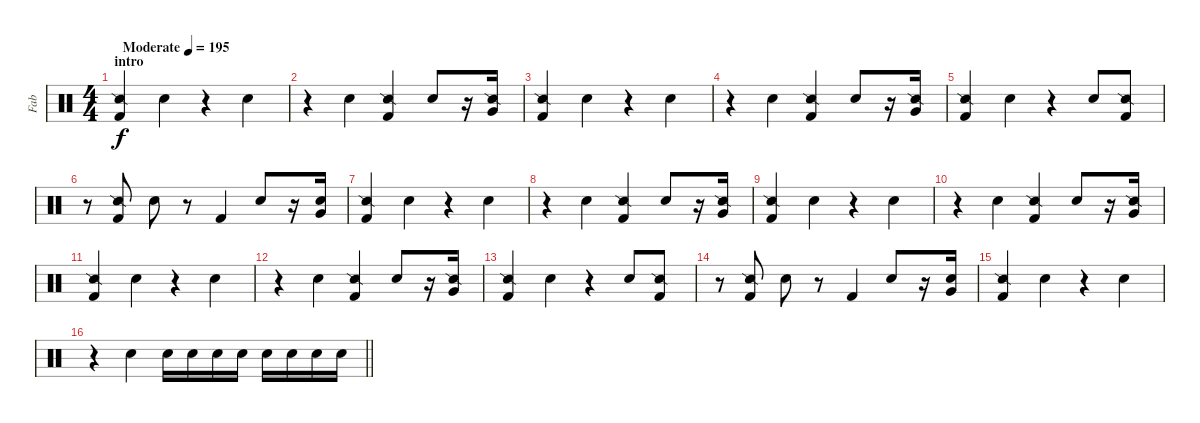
\track ("Fab" "Fab") {instrument percussion}
\staff {score}
\articulation defaults
\ts (4 4)
\section ("" "intro")
\tempo (195 "Moderate")
\clef neutral
\ks c
("Snare (side stick) 2" "Kick (hit) 2").4{dy f} "Electric Snare (hit)".4 r.4 "Electric Snare (hit)".4 |
r.4 "Electric Snare (hit)".4 ("Snare (side stick) 2" "Kick (hit) 2").4 "Electric Snare (hit)".8 r.16 ("Snare (side stick) 2" "Very Low Tom (hit)").16 |
("Snare (side stick) 2" "Kick (hit) 2").4 "Electric Snare (hit)".4 r.4 "Electric Snare (hit)".4 |
r.4 "Electric Snare (hit)".4 ("Snare (side stick) 2" "Kick (hit) 2").4 "Electric Snare (hit)".8 r.16 ("Snare (side stick) 2" "Very Low Tom (hit)").16 |
("Snare (side stick) 2" "Kick (hit) 2").4 "Electric Snare (hit)".4 r.4 "Electric Snare (hit)".8 ("Snare (side stick) 2" "Kick (hit) 2").8 |
r.8 ("Snare (side stick) 2" "Kick (hit) 2").8 "Electric Snare (hit)".8 r.8 "Kick (hit) 2".4 "Electric Snare (hit)".8 r.16 ("Electric Snare (hit)" "Very Low Tom (hit)").16 |
("Snare (side stick) 2" "Kick (hit) 2").4 "Electric Snare (hit)".4 r.4 "Electric Snare (hit)".4 |
r.4 "Electric Snare (hit)".4 ("Snare (side stick) 2" "Kick (hit) 2").4 "Electric Snare (hit)".8 r.16 ("Snare (side stick) 2" "Very Low Tom (hit)").16 |
("Snare (side stick) 2" "Kick (hit) 2").4 "Electric Snare (hit)".4 r.4 "Electric Snare (hit)".4 |
r.4 "Electric Snare (hit)".4 ("Snare (side stick) 2" "Kick (hit) 2").4 "Electric Snare (hit)".8 r.16 ("Snare (side stick) 2" "Very Low Tom (hit)").16 |
("Snare (side stick) 2" "Kick (hit) 2").4 "Electric Snare (hit)".4 r.4 "Electric Snare (hit)".4 |
r.4 "Electric Snare (hit)".4 ("Snare (side stick) 2" "Kick (hit) 2").4 "Electric Snare (hit)".8 r.16 ("Snare (side stick) 2" "Very Low Tom (hit)").16 |
("Snare (side stick) 2" "Kick (hit) 2").4 "Electric Snare (hit)".4 r.4 "Electric Snare (hit)".8 ("Snare (side stick) 2" "Kick (hit) 2").8 |
r.8 ("Snare (side stick) 2" "Kick (hit) 2").8 "Electric Snare (hit)".8 r.8 "Kick (hit) 2".4 "Electric Snare (hit)".8 r.16 ("Electric Snare (hit)" "Very Low Tom (hit)").16 |
("Snare (side stick) 2" "Kick (hit) 2").4 "Electric Snare (hit)".4 r.4 "Electric Snare (hit)".4 |
\barLineRight lightlight
r.4 "Electric Snare (hit)".4 "Electric Snare (hit)".16 "Electric Snare (hit)".16 "Electric Snare (hit)".16 "Electric Snare (hit)".16 "Electric Snare (hit)".16 "Electric Snare (hit)".16 "Electric Snare (hit)".16 "Electric Snare (hit)".16
